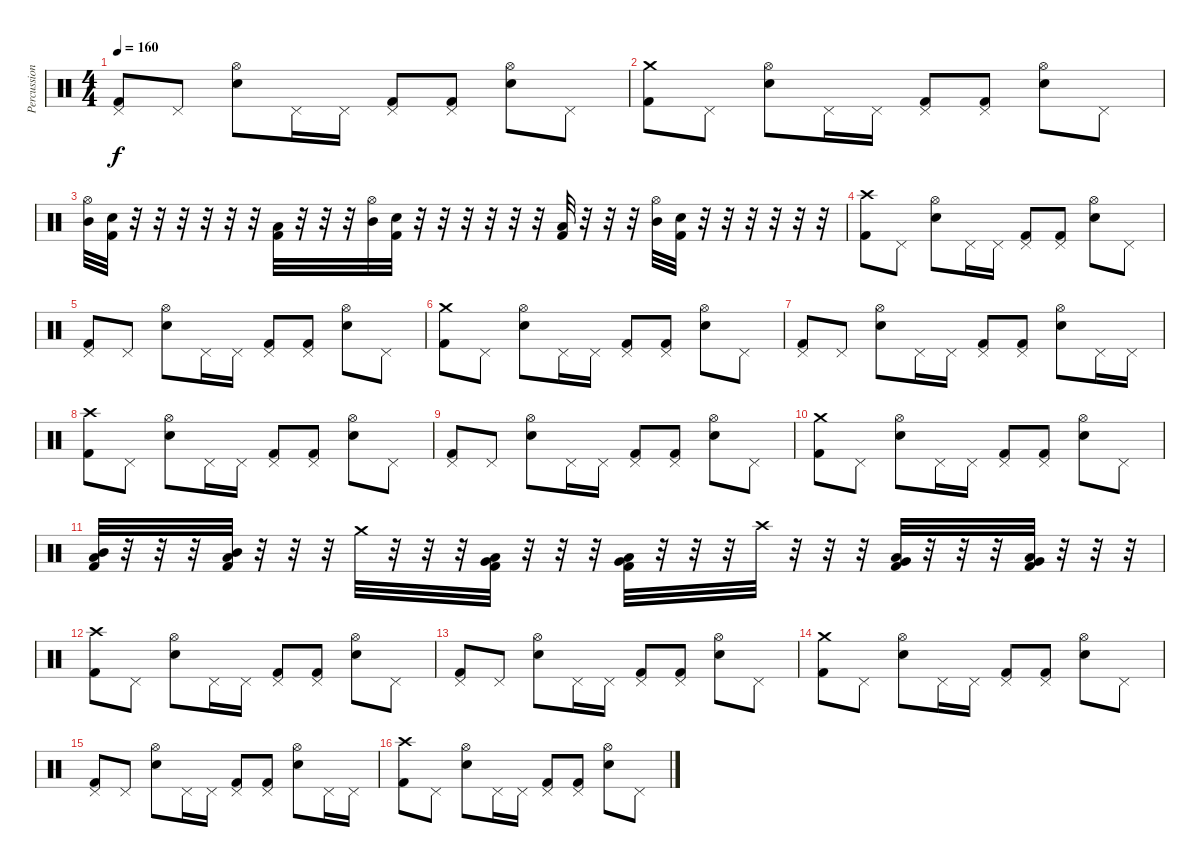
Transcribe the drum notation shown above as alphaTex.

\track ("Percussion" "Percussion") {instrument percussion}
\staff {score}
\articulation defaults
\ts (4 4)
\tempo 160
\clef neutral
\ks c
("Pedal Hi-Hat (hit)" "Kick (hit) 2").8{dy f} "Pedal Hi-Hat (hit)".8 ("Hi-Hat (open)" "Electric Snare (hit)").8 "Pedal Hi-Hat (hit)".16 "Pedal Hi-Hat (hit)".16 ("Pedal Hi-Hat (hit)" "Kick (hit) 2").8 ("Pedal Hi-Hat (hit)" "Kick (hit) 2").8 ("Hi-Hat (open)" "Electric Snare (hit)").8 "Pedal Hi-Hat (hit)".8 |
("Crash medium (hit)" "Kick (hit) 2").8 "Pedal Hi-Hat (hit)".8 ("Hi-Hat (open)" "Electric Snare (hit)").8 "Pedal Hi-Hat (hit)".16 "Pedal Hi-Hat (hit)".16 ("Pedal Hi-Hat (hit)" "Kick (hit) 2").8 ("Pedal Hi-Hat (hit)" "Kick (hit) 2").8 ("Hi-Hat (open)" "Electric Snare (hit)").8 "Pedal Hi-Hat (hit)".8 |
("Hi-Hat (open)" "Mid Tom (hit)").32 ("Electric Snare (hit)" "Kick (hit) 2").32 r.32 r.32 r.32 r.32 r.32 r.32 ("Low Floor Tom (hit)" "Kick (hit) 2").32 r.32 r.32 r.32 ("Hi-Hat (open)" "Mid Tom (hit)").32 ("Electric Snare (hit)" "Kick (hit) 2").32 r.32 r.32 r.32 r.32 r.32 r.32 ("Low Floor Tom (hit)" "Kick (hit) 2").32 r.32 r.32 r.32 ("Hi-Hat (open)" "Mid Tom (hit)").32 ("Electric Snare (hit)" "Kick (hit) 2").32 r.32 r.32 r.32 r.32 r.32 r.32 |
("Crash high (hit)" "Kick (hit) 2").8 "Pedal Hi-Hat (hit)".8 ("Hi-Hat (open)" "Electric Snare (hit)").8 "Pedal Hi-Hat (hit)".16 "Pedal Hi-Hat (hit)".16 ("Pedal Hi-Hat (hit)" "Kick (hit) 2").8 ("Pedal Hi-Hat (hit)" "Kick (hit) 2").8 ("Hi-Hat (open)" "Electric Snare (hit)").8 "Pedal Hi-Hat (hit)".8 |
("Pedal Hi-Hat (hit)" "Kick (hit) 2").8 "Pedal Hi-Hat (hit)".8 ("Hi-Hat (open)" "Electric Snare (hit)").8 "Pedal Hi-Hat (hit)".16 "Pedal Hi-Hat (hit)".16 ("Pedal Hi-Hat (hit)" "Kick (hit) 2").8 ("Pedal Hi-Hat (hit)" "Kick (hit) 2").8 ("Hi-Hat (open)" "Electric Snare (hit)").8 "Pedal Hi-Hat (hit)".8 |
("Crash medium (hit)" "Kick (hit) 2").8 "Pedal Hi-Hat (hit)".8 ("Hi-Hat (open)" "Electric Snare (hit)").8 "Pedal Hi-Hat (hit)".16 "Pedal Hi-Hat (hit)".16 ("Pedal Hi-Hat (hit)" "Kick (hit) 2").8 ("Pedal Hi-Hat (hit)" "Kick (hit) 2").8 ("Hi-Hat (open)" "Electric Snare (hit)").8 "Pedal Hi-Hat (hit)".8 |
("Pedal Hi-Hat (hit)" "Kick (hit) 2").8 "Pedal Hi-Hat (hit)".8 ("Hi-Hat (open)" "Electric Snare (hit)").8 "Pedal Hi-Hat (hit)".16 "Pedal Hi-Hat (hit)".16 ("Pedal Hi-Hat (hit)" "Kick (hit) 2").8 ("Pedal Hi-Hat (hit)" "Kick (hit) 2").8 ("Hi-Hat (open)" "Electric Snare (hit)").8 "Pedal Hi-Hat (hit)".16 "Pedal Hi-Hat (hit)".16 |
("Crash high (hit)" "Kick (hit) 2").8 "Pedal Hi-Hat (hit)".8 ("Hi-Hat (open)" "Electric Snare (hit)").8 "Pedal Hi-Hat (hit)".16 "Pedal Hi-Hat (hit)".16 ("Pedal Hi-Hat (hit)" "Kick (hit) 2").8 ("Pedal Hi-Hat (hit)" "Kick (hit) 2").8 ("Hi-Hat (open)" "Electric Snare (hit)").8 "Pedal Hi-Hat (hit)".8 |
("Pedal Hi-Hat (hit)" "Kick (hit) 2").8 "Pedal Hi-Hat (hit)".8 ("Hi-Hat (open)" "Electric Snare (hit)").8 "Pedal Hi-Hat (hit)".16 "Pedal Hi-Hat (hit)".16 ("Pedal Hi-Hat (hit)" "Kick (hit) 2").8 ("Pedal Hi-Hat (hit)" "Kick (hit) 2").8 ("Hi-Hat (open)" "Electric Snare (hit)").8 "Pedal Hi-Hat (hit)".8 |
("Crash medium (hit)" "Kick (hit) 2").8 "Pedal Hi-Hat (hit)".8 ("Hi-Hat (open)" "Electric Snare (hit)").8 "Pedal Hi-Hat (hit)".16 "Pedal Hi-Hat (hit)".16 ("Pedal Hi-Hat (hit)" "Kick (hit) 2").8 ("Pedal Hi-Hat (hit)" "Kick (hit) 2").8 ("Hi-Hat (open)" "Electric Snare (hit)").8 "Pedal Hi-Hat (hit)".8 |
("Mid Tom (hit)" "Low Tom (hit)" "Kick (hit) 2").32 r.32 r.32 r.32 ("Mid Tom (hit)" "Low Tom (hit)" "Kick (hit) 2").32 r.32 r.32 r.32 "Crash medium (hit)".32 r.32 r.32 r.32 ("Low Tom (hit)" "Very Low Tom (hit)" "Kick (hit) 2").32 r.32 r.32 r.32 ("Low Tom (hit)" "Very Low Tom (hit)" "Kick (hit) 2").32 r.32 r.32 r.32 "Crash high (hit)".32 r.32 r.32 r.32 ("Very Low Tom (hit)" "Low Floor Tom (hit)" "Kick (hit) 2").32 r.32 r.32 r.32 ("Very Low Tom (hit)" "Low Floor Tom (hit)" "Kick (hit) 2").32 r.32 r.32 r.32 |
("Crash high (hit)" "Kick (hit) 2").8 "Pedal Hi-Hat (hit)".8 ("Hi-Hat (open)" "Electric Snare (hit)").8 "Pedal Hi-Hat (hit)".16 "Pedal Hi-Hat (hit)".16 ("Pedal Hi-Hat (hit)" "Kick (hit) 2").8 ("Pedal Hi-Hat (hit)" "Kick (hit) 2").8 ("Hi-Hat (open)" "Electric Snare (hit)").8 "Pedal Hi-Hat (hit)".8 |
("Pedal Hi-Hat (hit)" "Kick (hit) 2").8 "Pedal Hi-Hat (hit)".8 ("Hi-Hat (open)" "Electric Snare (hit)").8 "Pedal Hi-Hat (hit)".16 "Pedal Hi-Hat (hit)".16 ("Pedal Hi-Hat (hit)" "Kick (hit) 2").8 ("Pedal Hi-Hat (hit)" "Kick (hit) 2").8 ("Hi-Hat (open)" "Electric Snare (hit)").8 "Pedal Hi-Hat (hit)".8 |
("Crash medium (hit)" "Kick (hit) 2").8 "Pedal Hi-Hat (hit)".8 ("Hi-Hat (open)" "Electric Snare (hit)").8 "Pedal Hi-Hat (hit)".16 "Pedal Hi-Hat (hit)".16 ("Pedal Hi-Hat (hit)" "Kick (hit) 2").8 ("Pedal Hi-Hat (hit)" "Kick (hit) 2").8 ("Hi-Hat (open)" "Electric Snare (hit)").8 "Pedal Hi-Hat (hit)".8 |
("Pedal Hi-Hat (hit)" "Kick (hit) 2").8 "Pedal Hi-Hat (hit)".8 ("Hi-Hat (open)" "Electric Snare (hit)").8 "Pedal Hi-Hat (hit)".16 "Pedal Hi-Hat (hit)".16 ("Pedal Hi-Hat (hit)" "Kick (hit) 2").8 ("Pedal Hi-Hat (hit)" "Kick (hit) 2").8 ("Hi-Hat (open)" "Electric Snare (hit)").8 "Pedal Hi-Hat (hit)".16 "Pedal Hi-Hat (hit)".16 |
("Crash high (hit)" "Kick (hit) 2").8 "Pedal Hi-Hat (hit)".8 ("Hi-Hat (open)" "Electric Snare (hit)").8 "Pedal Hi-Hat (hit)".16 "Pedal Hi-Hat (hit)".16 ("Pedal Hi-Hat (hit)" "Kick (hit) 2").8 ("Pedal Hi-Hat (hit)" "Kick (hit) 2").8 ("Hi-Hat (open)" "Electric Snare (hit)").8 "Pedal Hi-Hat (hit)".8
